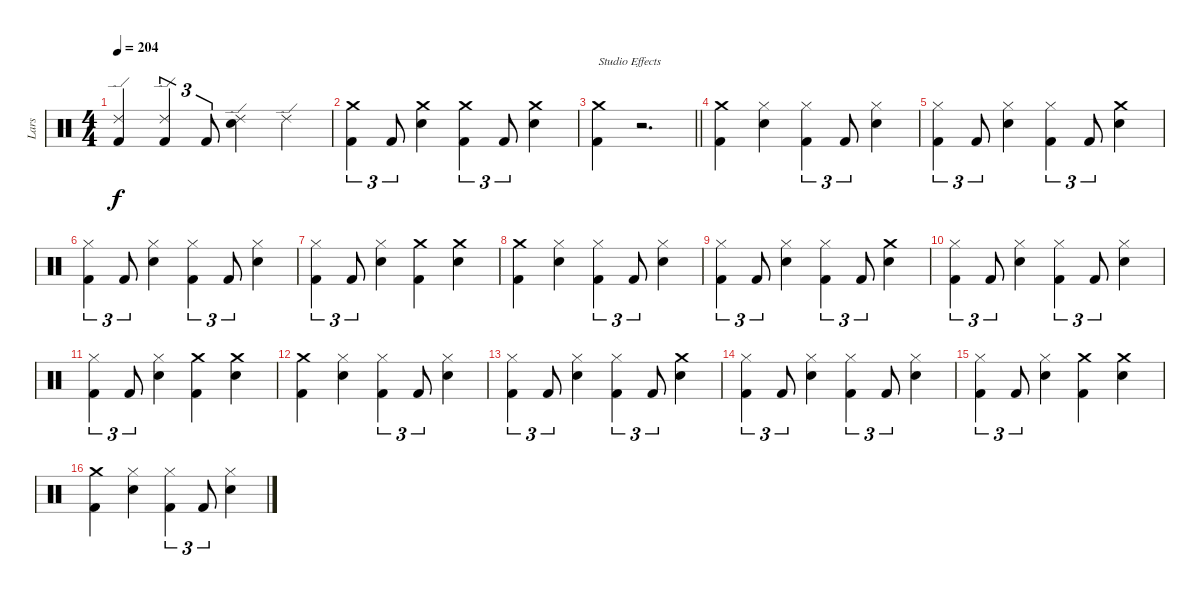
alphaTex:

\track ("Lars" "Lars") {instrument percussion}
\staff {score}
\articulation defaults
\ts (4 4)
\tempo 204
\clef neutral
\ks c
("Kick (hit) 2" "Ride (edge) 2").4{dy f} ("Ride (edge) 2" "Kick (hit) 2").4{tu (3 2)} "Kick (hit) 2".8{tu (3 2)} ("Snare (hit) 2" "Ride (edge) 2").4 "Ride (edge) 2".4 |
("Kick (hit) 2" "Crash medium (hit)").4{tu (3 2)} "Kick (hit) 2".8{tu (3 2)} ("Snare (hit) 2" "Crash medium (hit)").4 ("Kick (hit) 2" "Crash medium (hit)").4{tu (3 2)} "Kick (hit) 2".8{tu (3 2)} ("Snare (hit) 2" "Crash medium (hit)").4 |
\barLineRight lightlight
("Kick (hit) 2" "Crash medium (hit)").4{txt "Studio Effects"} r.2{d} |
("Kick (hit) 2" "Crash medium (hit)").4 ("Hi-Hat (closed)" "Snare (hit) 2").4 ("Hi-Hat (closed)" "Kick (hit) 2").4{tu (3 2)} "Kick (hit) 2".8{tu (3 2)} ("Snare (hit) 2" "Hi-Hat (closed)").4 |
("Hi-Hat (closed)" "Kick (hit) 2").4{tu (3 2)} "Kick (hit) 2".8{tu (3 2)} ("Snare (hit) 2" "Hi-Hat (closed)").4 ("Hi-Hat (closed)" "Kick (hit) 2").4{tu (3 2)} "Kick (hit) 2".8{tu (3 2)} ("Crash medium (hit)" "Snare (hit) 2").4 |
("Hi-Hat (closed)" "Kick (hit) 2").4{tu (3 2)} "Kick (hit) 2".8{tu (3 2)} ("Snare (hit) 2" "Hi-Hat (closed)").4 ("Hi-Hat (closed)" "Kick (hit) 2").4{tu (3 2)} "Kick (hit) 2".8{tu (3 2)} ("Snare (hit) 2" "Hi-Hat (closed)").4 |
("Hi-Hat (closed)" "Kick (hit) 2").4{tu (3 2)} "Kick (hit) 2".8{tu (3 2)} ("Snare (hit) 2" "Hi-Hat (closed)").4 ("Crash medium (hit)" "Kick (hit) 2").4 ("Crash medium (hit)" "Snare (hit) 2").4 |
("Kick (hit) 2" "Crash medium (hit)").4 ("Hi-Hat (closed)" "Snare (hit) 2").4 ("Hi-Hat (closed)" "Kick (hit) 2").4{tu (3 2)} "Kick (hit) 2".8{tu (3 2)} ("Snare (hit) 2" "Hi-Hat (closed)").4 |
("Hi-Hat (closed)" "Kick (hit) 2").4{tu (3 2)} "Kick (hit) 2".8{tu (3 2)} ("Snare (hit) 2" "Hi-Hat (closed)").4 ("Hi-Hat (closed)" "Kick (hit) 2").4{tu (3 2)} "Kick (hit) 2".8{tu (3 2)} ("Crash medium (hit)" "Snare (hit) 2").4 |
("Hi-Hat (closed)" "Kick (hit) 2").4{tu (3 2)} "Kick (hit) 2".8{tu (3 2)} ("Snare (hit) 2" "Hi-Hat (closed)").4 ("Hi-Hat (closed)" "Kick (hit) 2").4{tu (3 2)} "Kick (hit) 2".8{tu (3 2)} ("Snare (hit) 2" "Hi-Hat (closed)").4 |
("Hi-Hat (closed)" "Kick (hit) 2").4{tu (3 2)} "Kick (hit) 2".8{tu (3 2)} ("Snare (hit) 2" "Hi-Hat (closed)").4 ("Crash medium (hit)" "Kick (hit) 2").4 ("Crash medium (hit)" "Snare (hit) 2").4 |
("Kick (hit) 2" "Crash medium (hit)").4 ("Hi-Hat (closed)" "Snare (hit) 2").4 ("Hi-Hat (closed)" "Kick (hit) 2").4{tu (3 2)} "Kick (hit) 2".8{tu (3 2)} ("Snare (hit) 2" "Hi-Hat (closed)").4 |
("Hi-Hat (closed)" "Kick (hit) 2").4{tu (3 2)} "Kick (hit) 2".8{tu (3 2)} ("Snare (hit) 2" "Hi-Hat (closed)").4 ("Hi-Hat (closed)" "Kick (hit) 2").4{tu (3 2)} "Kick (hit) 2".8{tu (3 2)} ("Crash medium (hit)" "Snare (hit) 2").4 |
("Hi-Hat (closed)" "Kick (hit) 2").4{tu (3 2)} "Kick (hit) 2".8{tu (3 2)} ("Snare (hit) 2" "Hi-Hat (closed)").4 ("Hi-Hat (closed)" "Kick (hit) 2").4{tu (3 2)} "Kick (hit) 2".8{tu (3 2)} ("Snare (hit) 2" "Hi-Hat (closed)").4 |
("Hi-Hat (closed)" "Kick (hit) 2").4{tu (3 2)} "Kick (hit) 2".8{tu (3 2)} ("Snare (hit) 2" "Hi-Hat (closed)").4 ("Crash medium (hit)" "Kick (hit) 2").4 ("Crash medium (hit)" "Snare (hit) 2").4 |
("Kick (hit) 2" "Crash medium (hit)").4 ("Hi-Hat (closed)" "Snare (hit) 2").4 ("Hi-Hat (closed)" "Kick (hit) 2").4{tu (3 2)} "Kick (hit) 2".8{tu (3 2)} ("Snare (hit) 2" "Hi-Hat (closed)").4
